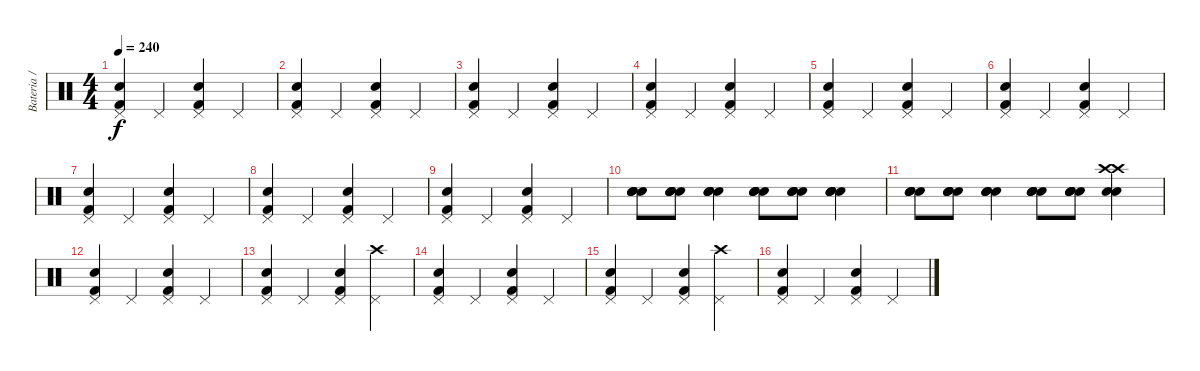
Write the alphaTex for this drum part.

\track ("Bateria / Percusión" "Bateria / ") {instrument percussion}
\staff {score}
\articulation defaults
\ts (4 4)
\tempo 240
\clef neutral
\ks c
("Kick (hit) 2" "Pedal Hi-Hat (hit)" "Snare (hit) 2").4{dy f} "Pedal Hi-Hat (hit)".4 ("Kick (hit) 2" "Pedal Hi-Hat (hit)" "Snare (hit) 2").4 "Pedal Hi-Hat (hit)".4 |
("Kick (hit) 2" "Pedal Hi-Hat (hit)" "Snare (hit) 2").4 "Pedal Hi-Hat (hit)".4 ("Kick (hit) 2" "Pedal Hi-Hat (hit)" "Snare (hit) 2").4 "Pedal Hi-Hat (hit)".4 |
("Kick (hit) 2" "Pedal Hi-Hat (hit)" "Snare (hit) 2").4 "Pedal Hi-Hat (hit)".4 ("Kick (hit) 2" "Pedal Hi-Hat (hit)" "Snare (hit) 2").4 "Pedal Hi-Hat (hit)".4 |
("Kick (hit) 2" "Pedal Hi-Hat (hit)" "Snare (hit) 2").4 "Pedal Hi-Hat (hit)".4 ("Kick (hit) 2" "Pedal Hi-Hat (hit)" "Snare (hit) 2").4 "Pedal Hi-Hat (hit)".4 |
("Kick (hit) 2" "Pedal Hi-Hat (hit)" "Snare (hit) 2").4 "Pedal Hi-Hat (hit)".4 ("Kick (hit) 2" "Pedal Hi-Hat (hit)" "Snare (hit) 2").4 "Pedal Hi-Hat (hit)".4 |
("Kick (hit) 2" "Pedal Hi-Hat (hit)" "Snare (hit) 2").4 "Pedal Hi-Hat (hit)".4 ("Kick (hit) 2" "Pedal Hi-Hat (hit)" "Snare (hit) 2").4 "Pedal Hi-Hat (hit)".4 |
("Kick (hit) 2" "Pedal Hi-Hat (hit)" "Snare (hit) 2").4 "Pedal Hi-Hat (hit)".4 ("Kick (hit) 2" "Pedal Hi-Hat (hit)" "Snare (hit) 2").4 "Pedal Hi-Hat (hit)".4 |
("Kick (hit) 2" "Pedal Hi-Hat (hit)" "Snare (hit) 2").4 "Pedal Hi-Hat (hit)".4 ("Kick (hit) 2" "Pedal Hi-Hat (hit)" "Snare (hit) 2").4 "Pedal Hi-Hat (hit)".4 |
("Kick (hit) 2" "Pedal Hi-Hat (hit)" "Snare (hit) 2").4 "Pedal Hi-Hat (hit)".4 ("Kick (hit) 2" "Pedal Hi-Hat (hit)" "Snare (hit) 2").4 "Pedal Hi-Hat (hit)".4 |
("Snare (hit) 2" "Snare (hit) 2" "Snare (hit) 2" "Snare (hit) 2").8 ("Snare (hit) 2" "Snare (hit) 2" "Snare (hit) 2" "Snare (hit) 2").8 ("Snare (hit) 2" "Snare (hit) 2" "Snare (hit) 2" "Snare (hit) 2").4 ("Snare (hit) 2" "Snare (hit) 2" "Snare (hit) 2" "Snare (hit) 2").8 ("Snare (hit) 2" "Snare (hit) 2" "Snare (hit) 2" "Snare (hit) 2").8 ("Snare (hit) 2" "Snare (hit) 2" "Snare (hit) 2" "Snare (hit) 2").4 |
("Snare (hit) 2" "Snare (hit) 2" "Snare (hit) 2" "Snare (hit) 2").8 ("Snare (hit) 2" "Snare (hit) 2" "Snare (hit) 2" "Snare (hit) 2").8 ("Snare (hit) 2" "Snare (hit) 2" "Snare (hit) 2" "Snare (hit) 2").4 ("Snare (hit) 2" "Snare (hit) 2" "Snare (hit) 2" "Snare (hit) 2").8 ("Snare (hit) 2" "Snare (hit) 2" "Snare (hit) 2" "Snare (hit) 2").8 ("Crash high (hit)" "Crash high (hit)" "Snare (hit) 2" "Snare (hit) 2").4 |
("Kick (hit) 2" "Pedal Hi-Hat (hit)" "Snare (hit) 2").4 "Pedal Hi-Hat (hit)".4 ("Kick (hit) 2" "Pedal Hi-Hat (hit)" "Snare (hit) 2").4 "Pedal Hi-Hat (hit)".4 |
("Kick (hit) 2" "Pedal Hi-Hat (hit)" "Snare (hit) 2").4 "Pedal Hi-Hat (hit)".4 ("Kick (hit) 2" "Pedal Hi-Hat (hit)" "Snare (hit) 2").4 ("Crash high (hit)" "Pedal Hi-Hat (hit)").4 |
("Kick (hit) 2" "Pedal Hi-Hat (hit)" "Snare (hit) 2").4 "Pedal Hi-Hat (hit)".4 ("Kick (hit) 2" "Pedal Hi-Hat (hit)" "Snare (hit) 2").4 "Pedal Hi-Hat (hit)".4 |
("Kick (hit) 2" "Pedal Hi-Hat (hit)" "Snare (hit) 2").4 "Pedal Hi-Hat (hit)".4 ("Kick (hit) 2" "Pedal Hi-Hat (hit)" "Snare (hit) 2").4 ("Crash high (hit)" "Pedal Hi-Hat (hit)").4 |
("Kick (hit) 2" "Pedal Hi-Hat (hit)" "Snare (hit) 2").4 "Pedal Hi-Hat (hit)".4 ("Kick (hit) 2" "Pedal Hi-Hat (hit)" "Snare (hit) 2").4 "Pedal Hi-Hat (hit)".4
